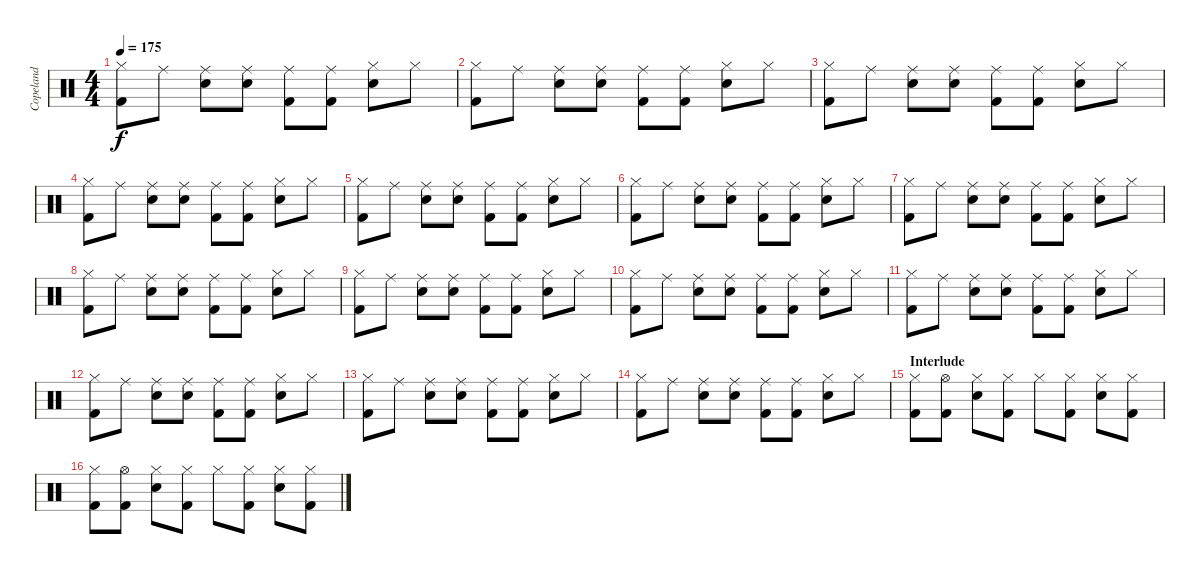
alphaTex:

\track ("Copeland" "Copeland") {instrument percussion}
\staff {score}
\articulation defaults
\ts (4 4)
\tempo 175
\clef neutral
\ks c
("Hi-Hat (closed)" "Kick (hit) 2").8{dy f} "Ride (middle)".8 ("Ride (middle)" "Snare (hit) 2").8 ("Ride (middle)" "Snare (hit) 2").8 ("Ride (middle)" "Kick (hit) 2").8 ("Ride (middle)" "Kick (hit) 2").8 ("Hi-Hat (closed)" "Snare (hit) 2").8 "Hi-Hat (closed)".8 |
("Hi-Hat (closed)" "Kick (hit) 2").8 "Ride (middle)".8 ("Ride (middle)" "Snare (hit) 2").8 ("Ride (middle)" "Snare (hit) 2").8 ("Ride (middle)" "Kick (hit) 2").8 ("Ride (middle)" "Kick (hit) 2").8 ("Hi-Hat (closed)" "Snare (hit) 2").8 "Hi-Hat (closed)".8 |
("Hi-Hat (closed)" "Kick (hit) 2").8 "Ride (middle)".8 ("Ride (middle)" "Snare (hit) 2").8 ("Ride (middle)" "Snare (hit) 2").8 ("Ride (middle)" "Kick (hit) 2").8 ("Ride (middle)" "Kick (hit) 2").8 ("Hi-Hat (closed)" "Snare (hit) 2").8 "Hi-Hat (closed)".8 |
("Hi-Hat (closed)" "Kick (hit) 2").8 "Ride (middle)".8 ("Ride (middle)" "Snare (hit) 2").8 ("Ride (middle)" "Snare (hit) 2").8 ("Ride (middle)" "Kick (hit) 2").8 ("Ride (middle)" "Kick (hit) 2").8 ("Hi-Hat (closed)" "Snare (hit) 2").8 "Hi-Hat (closed)".8 |
("Hi-Hat (closed)" "Kick (hit) 2").8 "Ride (middle)".8 ("Ride (middle)" "Snare (hit) 2").8 ("Ride (middle)" "Snare (hit) 2").8 ("Ride (middle)" "Kick (hit) 2").8 ("Ride (middle)" "Kick (hit) 2").8 ("Hi-Hat (closed)" "Snare (hit) 2").8 "Hi-Hat (closed)".8 |
("Hi-Hat (closed)" "Kick (hit) 2").8 "Ride (middle)".8 ("Ride (middle)" "Snare (hit) 2").8 ("Ride (middle)" "Snare (hit) 2").8 ("Ride (middle)" "Kick (hit) 2").8 ("Ride (middle)" "Kick (hit) 2").8 ("Hi-Hat (closed)" "Snare (hit) 2").8 "Hi-Hat (closed)".8 |
("Hi-Hat (closed)" "Kick (hit) 2").8 "Ride (middle)".8 ("Ride (middle)" "Snare (hit) 2").8 ("Ride (middle)" "Snare (hit) 2").8 ("Ride (middle)" "Kick (hit) 2").8 ("Ride (middle)" "Kick (hit) 2").8 ("Hi-Hat (closed)" "Snare (hit) 2").8 "Hi-Hat (closed)".8 |
("Hi-Hat (closed)" "Kick (hit) 2").8 "Ride (middle)".8 ("Ride (middle)" "Snare (hit) 2").8 ("Ride (middle)" "Snare (hit) 2").8 ("Ride (middle)" "Kick (hit) 2").8 ("Ride (middle)" "Kick (hit) 2").8 ("Hi-Hat (closed)" "Snare (hit) 2").8 "Hi-Hat (closed)".8 |
("Hi-Hat (closed)" "Kick (hit) 2").8 "Ride (middle)".8 ("Ride (middle)" "Snare (hit) 2").8 ("Ride (middle)" "Snare (hit) 2").8 ("Ride (middle)" "Kick (hit) 2").8 ("Ride (middle)" "Kick (hit) 2").8 ("Hi-Hat (closed)" "Snare (hit) 2").8 "Hi-Hat (closed)".8 |
("Hi-Hat (closed)" "Kick (hit) 2").8 "Ride (middle)".8 ("Ride (middle)" "Snare (hit) 2").8 ("Ride (middle)" "Snare (hit) 2").8 ("Ride (middle)" "Kick (hit) 2").8 ("Ride (middle)" "Kick (hit) 2").8 ("Hi-Hat (closed)" "Snare (hit) 2").8 "Hi-Hat (closed)".8 |
("Hi-Hat (closed)" "Kick (hit) 2").8 "Ride (middle)".8 ("Ride (middle)" "Snare (hit) 2").8 ("Ride (middle)" "Snare (hit) 2").8 ("Ride (middle)" "Kick (hit) 2").8 ("Ride (middle)" "Kick (hit) 2").8 ("Hi-Hat (closed)" "Snare (hit) 2").8 "Hi-Hat (closed)".8 |
("Hi-Hat (closed)" "Kick (hit) 2").8 "Ride (middle)".8 ("Ride (middle)" "Snare (hit) 2").8 ("Ride (middle)" "Snare (hit) 2").8 ("Ride (middle)" "Kick (hit) 2").8 ("Ride (middle)" "Kick (hit) 2").8 ("Hi-Hat (closed)" "Snare (hit) 2").8 "Hi-Hat (closed)".8 |
("Hi-Hat (closed)" "Kick (hit) 2").8 "Ride (middle)".8 ("Ride (middle)" "Snare (hit) 2").8 ("Ride (middle)" "Snare (hit) 2").8 ("Ride (middle)" "Kick (hit) 2").8 ("Ride (middle)" "Kick (hit) 2").8 ("Hi-Hat (closed)" "Snare (hit) 2").8 "Hi-Hat (closed)".8 |
("Hi-Hat (closed)" "Kick (hit) 2").8 "Ride (middle)".8 ("Ride (middle)" "Snare (hit) 2").8 ("Ride (middle)" "Snare (hit) 2").8 ("Ride (middle)" "Kick (hit) 2").8 ("Ride (middle)" "Kick (hit) 2").8 ("Hi-Hat (closed)" "Snare (hit) 2").8 "Hi-Hat (closed)".8 |
\section ("" "Interlude")
("Hi-Hat (closed)" "Kick (hit) 2").8 ("Hi-Hat (open)" "Kick (hit) 2").8 ("Hi-Hat (closed)" "Snare (hit) 2").8 ("Hi-Hat (closed)" "Kick (hit) 2").8 "Hi-Hat (closed)".8 ("Hi-Hat (closed)" "Kick (hit) 2").8 ("Hi-Hat (closed)" "Snare (hit) 2").8 ("Hi-Hat (closed)" "Kick (hit) 2").8 |
("Hi-Hat (closed)" "Kick (hit) 2").8 ("Hi-Hat (open)" "Kick (hit) 2").8 ("Hi-Hat (closed)" "Snare (hit) 2").8 ("Hi-Hat (closed)" "Kick (hit) 2").8 "Hi-Hat (closed)".8 ("Hi-Hat (closed)" "Kick (hit) 2").8 ("Hi-Hat (closed)" "Snare (hit) 2").8 ("Hi-Hat (closed)" "Kick (hit) 2").8
